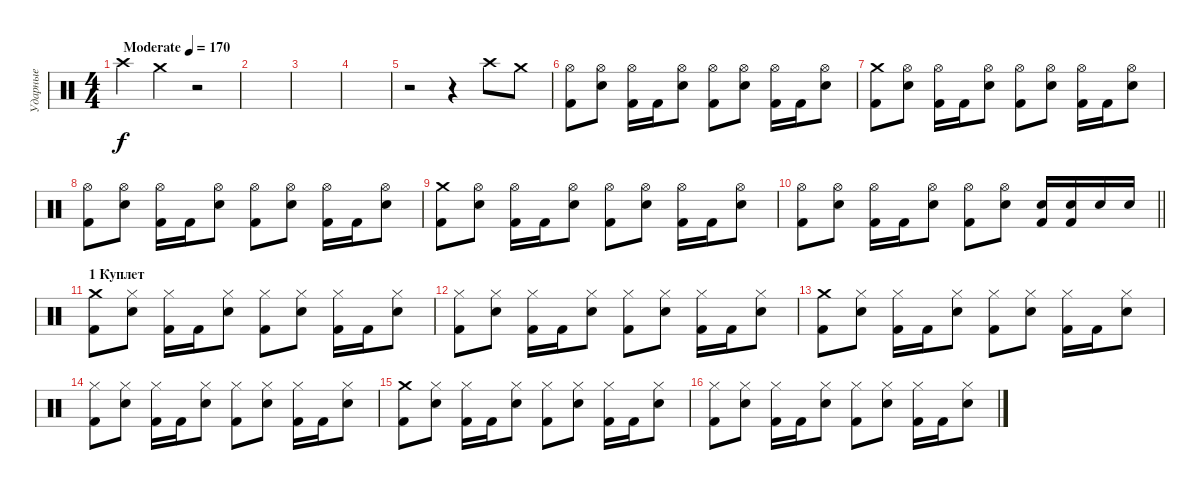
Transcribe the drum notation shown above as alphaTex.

\track ("Ударные" "Ударные") {instrument percussion}
\staff {score}
\articulation defaults
\ts (4 4)
\tempo (170 "Moderate")
\clef neutral
\ks c "Crash high (hit)".4{dy f} "Crash medium (hit)".4
r.2 |
|
|
|
r.2 r.4 "Crash high (hit)".8 "Crash medium (hit)".8 |
("Hi-Hat (open)" "Kick (hit) 2").8 ("Hi-Hat (open)" "Snare (hit) 2").8 ("Hi-Hat (open)" "Kick (hit) 2").16 "Kick (hit) 2".16 ("Hi-Hat (open)" "Snare (hit) 2").8 ("Hi-Hat (open)" "Kick (hit) 2").8 ("Hi-Hat (open)" "Snare (hit) 2").8 ("Hi-Hat (open)" "Kick (hit) 2").16 "Kick (hit) 2".16 ("Hi-Hat (open)" "Snare (hit) 2").8 |
("Crash medium (hit)" "Kick (hit) 2").8 ("Hi-Hat (open)" "Snare (hit) 2").8 ("Hi-Hat (open)" "Kick (hit) 2").16 "Kick (hit) 2".16 ("Hi-Hat (open)" "Snare (hit) 2").8 ("Hi-Hat (open)" "Kick (hit) 2").8 ("Hi-Hat (open)" "Snare (hit) 2").8 ("Hi-Hat (open)" "Kick (hit) 2").16 "Kick (hit) 2".16 ("Hi-Hat (open)" "Snare (hit) 2").8 |
("Hi-Hat (open)" "Kick (hit) 2").8 ("Hi-Hat (open)" "Snare (hit) 2").8 ("Hi-Hat (open)" "Kick (hit) 2").16 "Kick (hit) 2".16 ("Hi-Hat (open)" "Snare (hit) 2").8 ("Hi-Hat (open)" "Kick (hit) 2").8 ("Hi-Hat (open)" "Snare (hit) 2").8 ("Hi-Hat (open)" "Kick (hit) 2").16 "Kick (hit) 2".16 ("Hi-Hat (open)" "Snare (hit) 2").8 |
("Crash medium (hit)" "Kick (hit) 2").8 ("Hi-Hat (open)" "Snare (hit) 2").8 ("Hi-Hat (open)" "Kick (hit) 2").16 "Kick (hit) 2".16 ("Hi-Hat (open)" "Snare (hit) 2").8 ("Hi-Hat (open)" "Kick (hit) 2").8 ("Hi-Hat (open)" "Snare (hit) 2").8 ("Hi-Hat (open)" "Kick (hit) 2").16 "Kick (hit) 2".16 ("Hi-Hat (open)" "Snare (hit) 2").8 |
\barLineRight lightlight
("Hi-Hat (open)" "Kick (hit) 2").8 ("Hi-Hat (open)" "Snare (hit) 2").8 ("Hi-Hat (open)" "Kick (hit) 2").16 "Kick (hit) 2".16 ("Hi-Hat (open)" "Snare (hit) 2").8 ("Hi-Hat (open)" "Kick (hit) 2").8 ("Hi-Hat (open)" "Snare (hit) 2").8 ("Snare (hit) 2" "Kick (hit) 2").16 ("Snare (hit) 2" "Kick (hit) 2").16 "Snare (hit) 2".16 "Snare (hit) 2".16 |
\section ("" "1 Куплет")
("Crash medium (hit)" "Kick (hit) 2").8 ("Hi-Hat (closed)" "Snare (hit) 2").8 ("Hi-Hat (closed)" "Kick (hit) 2").16 "Kick (hit) 2".16 ("Hi-Hat (closed)" "Snare (hit) 2").8 ("Hi-Hat (closed)" "Kick (hit) 2").8 ("Hi-Hat (closed)" "Snare (hit) 2").8 ("Hi-Hat (closed)" "Kick (hit) 2").16 "Kick (hit) 2".16 ("Hi-Hat (closed)" "Snare (hit) 2").8 |
("Hi-Hat (closed)" "Kick (hit) 2").8 ("Hi-Hat (closed)" "Snare (hit) 2").8 ("Hi-Hat (closed)" "Kick (hit) 2").16 "Kick (hit) 2".16 ("Hi-Hat (closed)" "Snare (hit) 2").8 ("Hi-Hat (closed)" "Kick (hit) 2").8 ("Hi-Hat (closed)" "Snare (hit) 2").8 ("Hi-Hat (closed)" "Kick (hit) 2").16 "Kick (hit) 2".16 ("Hi-Hat (closed)" "Snare (hit) 2").8 |
("Crash medium (hit)" "Kick (hit) 2").8 ("Hi-Hat (closed)" "Snare (hit) 2").8 ("Hi-Hat (closed)" "Kick (hit) 2").16 "Kick (hit) 2".16 ("Hi-Hat (closed)" "Snare (hit) 2").8 ("Hi-Hat (closed)" "Kick (hit) 2").8 ("Hi-Hat (closed)" "Snare (hit) 2").8 ("Hi-Hat (closed)" "Kick (hit) 2").16 "Kick (hit) 2".16 ("Hi-Hat (closed)" "Snare (hit) 2").8 |
("Hi-Hat (closed)" "Kick (hit) 2").8 ("Hi-Hat (closed)" "Snare (hit) 2").8 ("Hi-Hat (closed)" "Kick (hit) 2").16 "Kick (hit) 2".16 ("Hi-Hat (closed)" "Snare (hit) 2").8 ("Hi-Hat (closed)" "Kick (hit) 2").8 ("Hi-Hat (closed)" "Snare (hit) 2").8 ("Hi-Hat (closed)" "Kick (hit) 2").16 "Kick (hit) 2".16 ("Hi-Hat (closed)" "Snare (hit) 2").8 |
("Crash medium (hit)" "Kick (hit) 2").8 ("Hi-Hat (closed)" "Snare (hit) 2").8 ("Hi-Hat (closed)" "Kick (hit) 2").16 "Kick (hit) 2".16 ("Hi-Hat (closed)" "Snare (hit) 2").8 ("Hi-Hat (closed)" "Kick (hit) 2").8 ("Hi-Hat (closed)" "Snare (hit) 2").8 ("Hi-Hat (closed)" "Kick (hit) 2").16 "Kick (hit) 2".16 ("Hi-Hat (closed)" "Snare (hit) 2").8 |
("Hi-Hat (closed)" "Kick (hit) 2").8 ("Hi-Hat (closed)" "Snare (hit) 2").8 ("Hi-Hat (closed)" "Kick (hit) 2").16 "Kick (hit) 2".16 ("Hi-Hat (closed)" "Snare (hit) 2").8 ("Hi-Hat (closed)" "Kick (hit) 2").8 ("Hi-Hat (closed)" "Snare (hit) 2").8 ("Hi-Hat (closed)" "Kick (hit) 2").16 "Kick (hit) 2".16 ("Hi-Hat (closed)" "Snare (hit) 2").8
